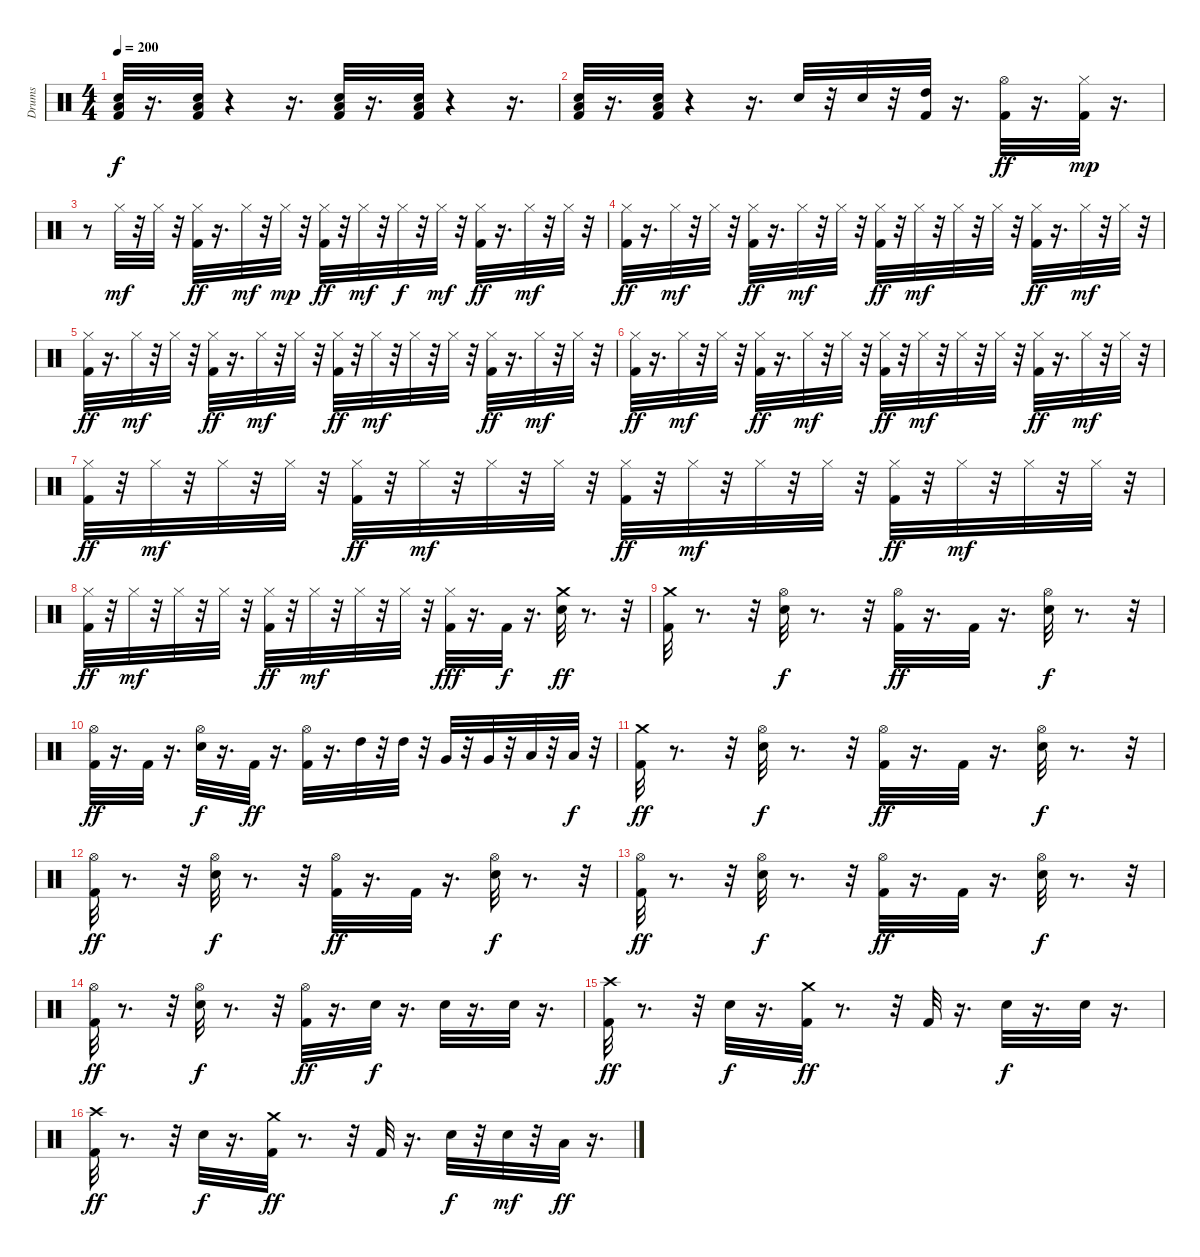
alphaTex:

\track ("Drums" "Drums") {instrument percussion}
\staff {score}
\articulation defaults
\ts (4 4)
\tempo 200
\clef neutral
\ks c
("Kick (hit) 2" "Low Floor Tom (hit)" "Snare (hit) 2").32{dy f} r.16{d} ("Kick (hit) 2" "Low Floor Tom (hit)" "Snare (hit) 2").32 r.4 r.16{d} ("Low Floor Tom (hit)" "Snare (hit) 2" "Kick (hit) 2").32 r.16{d} ("Low Floor Tom (hit)" "Snare (hit) 2" "Kick (hit) 2").32 r.4 r.16{d} |
("Snare (hit) 2" "Kick (hit) 2" "Low Floor Tom (hit)").32 r.16{d} ("Snare (hit) 2" "Kick (hit) 2" "Low Floor Tom (hit)").32 r.4 r.16{d} "Snare (hit) 2".32 r.32 "Snare (hit) 2".32 r.32 ("High Tom (hit)" "Kick (hit) 2").32 r.16{d} ("Hi-Hat (open)" "Kick (hit) 2").32{dy ff} r.16{d} ("Hi-Hat (closed)" "Kick (hit) 2").32{dy mp} r.16{d} |
r.8 "Hi-Hat (closed)".32{dy mf} r.32 "Hi-Hat (closed)".32 r.32 ("Hi-Hat (closed)" "Kick (hit) 2").32{dy ff} r.16{d} "Hi-Hat (closed)".32{dy mf} r.32 "Hi-Hat (closed)".32{dy mp} r.32 ("Hi-Hat (closed)" "Kick (hit) 2").32{dy ff} r.32 "Hi-Hat (closed)".32{dy mf} r.32 "Hi-Hat (closed)".32{dy f} r.32 "Hi-Hat (closed)".32{dy mf} r.32 ("Hi-Hat (closed)" "Kick (hit) 2").32{dy ff} r.16{d} "Hi-Hat (closed)".32{dy mf} r.32 "Hi-Hat (closed)".32 r.32 |
("Hi-Hat (closed)" "Kick (hit) 2").32{dy ff} r.16{d} "Hi-Hat (closed)".32{dy mf} r.32 "Hi-Hat (closed)".32 r.32 ("Hi-Hat (closed)" "Kick (hit) 2").32{dy ff} r.16{d} "Hi-Hat (closed)".32{dy mf} r.32 "Hi-Hat (closed)".32 r.32 ("Hi-Hat (closed)" "Kick (hit) 2").32{dy ff} r.32 "Hi-Hat (closed)".32{dy mf} r.32 "Hi-Hat (closed)".32 r.32 "Hi-Hat (closed)".32 r.32 ("Hi-Hat (closed)" "Kick (hit) 2").32{dy ff} r.16{d} "Hi-Hat (closed)".32{dy mf} r.32 "Hi-Hat (closed)".32 r.32 |
("Hi-Hat (closed)" "Kick (hit) 2").32{dy ff} r.16{d} "Hi-Hat (closed)".32{dy mf} r.32 "Hi-Hat (closed)".32 r.32 ("Hi-Hat (closed)" "Kick (hit) 2").32{dy ff} r.16{d} "Hi-Hat (closed)".32{dy mf} r.32 "Hi-Hat (closed)".32 r.32 ("Hi-Hat (closed)" "Kick (hit) 2").32{dy ff} r.32 "Hi-Hat (closed)".32{dy mf} r.32 "Hi-Hat (closed)".32 r.32 "Hi-Hat (closed)".32 r.32 ("Hi-Hat (closed)" "Kick (hit) 2").32{dy ff} r.16{d} "Hi-Hat (closed)".32{dy mf} r.32 "Hi-Hat (closed)".32 r.32 |
("Hi-Hat (closed)" "Kick (hit) 2").32{dy ff} r.16{d} "Hi-Hat (closed)".32{dy mf} r.32 "Hi-Hat (closed)".32 r.32 ("Hi-Hat (closed)" "Kick (hit) 2").32{dy ff} r.16{d} "Hi-Hat (closed)".32{dy mf} r.32 "Hi-Hat (closed)".32 r.32 ("Hi-Hat (closed)" "Kick (hit) 2").32{dy ff} r.32 "Hi-Hat (closed)".32{dy mf} r.32 "Hi-Hat (closed)".32 r.32 "Hi-Hat (closed)".32 r.32 ("Hi-Hat (closed)" "Kick (hit) 2").32{dy ff} r.16{d} "Hi-Hat (closed)".32{dy mf} r.32 "Hi-Hat (closed)".32 r.32 |
("Hi-Hat (closed)" "Kick (hit) 2").32{dy ff} r.32 "Hi-Hat (closed)".32{dy mf} r.32 "Hi-Hat (closed)".32 r.32 "Hi-Hat (closed)".32 r.32 ("Hi-Hat (closed)" "Kick (hit) 2").32{dy ff} r.32 "Hi-Hat (closed)".32{dy mf} r.32 "Hi-Hat (closed)".32 r.32 "Hi-Hat (closed)".32 r.32 ("Hi-Hat (closed)" "Kick (hit) 2").32{dy ff} r.32 "Hi-Hat (closed)".32{dy mf} r.32 "Hi-Hat (closed)".32 r.32 "Hi-Hat (closed)".32 r.32 ("Hi-Hat (closed)" "Kick (hit) 2").32{dy ff} r.32 "Hi-Hat (closed)".32{dy mf} r.32 "Hi-Hat (closed)".32 r.32 "Hi-Hat (closed)".32 r.32 |
("Hi-Hat (closed)" "Kick (hit) 2").32{dy ff} r.32 "Hi-Hat (closed)".32{dy mf} r.32 "Hi-Hat (closed)".32 r.32 "Hi-Hat (closed)".32 r.32 ("Hi-Hat (closed)" "Kick (hit) 2").32{dy ff} r.32 "Hi-Hat (closed)".32{dy mf} r.32 "Hi-Hat (closed)".32 r.32 "Hi-Hat (closed)".32 r.32 ("Hi-Hat (closed)" "Kick (hit) 2").32{dy fff} r.16{d} "Kick (hit) 2".32{dy f} r.16{d} ("Crash medium (hit)" "Snare (hit) 2").32{dy ff} r.8{d} r.32 |
("Crash medium (hit)" "Kick (hit) 2").32 r.8{d} r.32 ("Hi-Hat (open)" "Snare (hit) 2").32{dy f} r.8{d} r.32 ("Hi-Hat (open)" "Kick (hit) 2").32{dy ff} r.16{d} "Kick (hit) 2".32 r.16{d} ("Hi-Hat (open)" "Snare (hit) 2").32{dy f} r.8{d} r.32 |
("Kick (hit) 2" "Hi-Hat (open)").32{dy ff} r.16{d} "Kick (hit) 2".32 r.16{d} ("Hi-Hat (open)" "Snare (hit) 2").32{dy f} r.16{d} "Kick (hit) 2".32{dy ff} r.16{d} ("Hi-Hat (open)" "Kick (hit) 2").32 r.16{d} "High Tom (hit)".32 r.32 "High Tom (hit)".32 r.32 "Very Low Tom (hit)".32 r.32 "Very Low Tom (hit)".32 r.32 "Low Floor Tom (hit)".32 r.32 "Low Floor Tom (hit)".32{dy f} r.32 |
("Crash medium (hit)" "Kick (hit) 2").32{dy ff} r.8{d} r.32 ("Hi-Hat (open)" "Snare (hit) 2").32{dy f} r.8{d} r.32 ("Hi-Hat (open)" "Kick (hit) 2").32{dy ff} r.16{d} "Kick (hit) 2".32 r.16{d} ("Snare (hit) 2" "Hi-Hat (open)").32{dy f} r.8{d} r.32 |
("Kick (hit) 2" "Hi-Hat (open)").32{dy ff} r.8{d} r.32 ("Snare (hit) 2" "Hi-Hat (open)").32{dy f} r.8{d} r.32 ("Kick (hit) 2" "Hi-Hat (open)").32{dy ff} r.16{d} "Kick (hit) 2".32 r.16{d} ("Snare (hit) 2" "Hi-Hat (open)").32{dy f} r.8{d} r.32 |
("Kick (hit) 2" "Hi-Hat (open)").32{dy ff} r.8{d} r.32 ("Snare (hit) 2" "Hi-Hat (open)").32{dy f} r.8{d} r.32 ("Kick (hit) 2" "Hi-Hat (open)").32{dy ff} r.16{d} "Kick (hit) 2".32 r.16{d} ("Snare (hit) 2" "Hi-Hat (open)").32{dy f} r.8{d} r.32 |
("Kick (hit) 2" "Hi-Hat (open)").32{dy ff} r.8{d} r.32 ("Snare (hit) 2" "Hi-Hat (open)").32{dy f} r.8{d} r.32 ("Kick (hit) 2" "Hi-Hat (open)").32{dy ff} r.16{d} "Snare (hit) 2".32{dy f} r.16{d} "Snare (hit) 2".32 r.16{d} "Snare (hit) 2".32 r.16{d} |
("Crash high (hit)" "Kick (hit) 2").32{dy ff} r.8{d} r.32 "Snare (hit) 2".32{dy f} r.16{d} ("Kick (hit) 2" "Crash medium (hit)").32{dy ff} r.8{d} r.32 "Kick (hit) 2".32 r.16{d} "Snare (hit) 2".32{dy f} r.16{d} "Snare (hit) 2".32 r.16{d} |
("Crash high (hit)" "Kick (hit) 2").32{dy ff} r.8{d} r.32 "Snare (hit) 2".32{dy f} r.16{d} ("Crash medium (hit)" "Kick (hit) 2").32{dy ff} r.8{d} r.32 "Kick (hit) 2".32 r.16{d} "Snare (hit) 2".32{dy f} r.32 "Snare (hit) 2".32{dy mf} r.32 "Low Floor Tom (hit)".32{dy ff} r.16{d}
